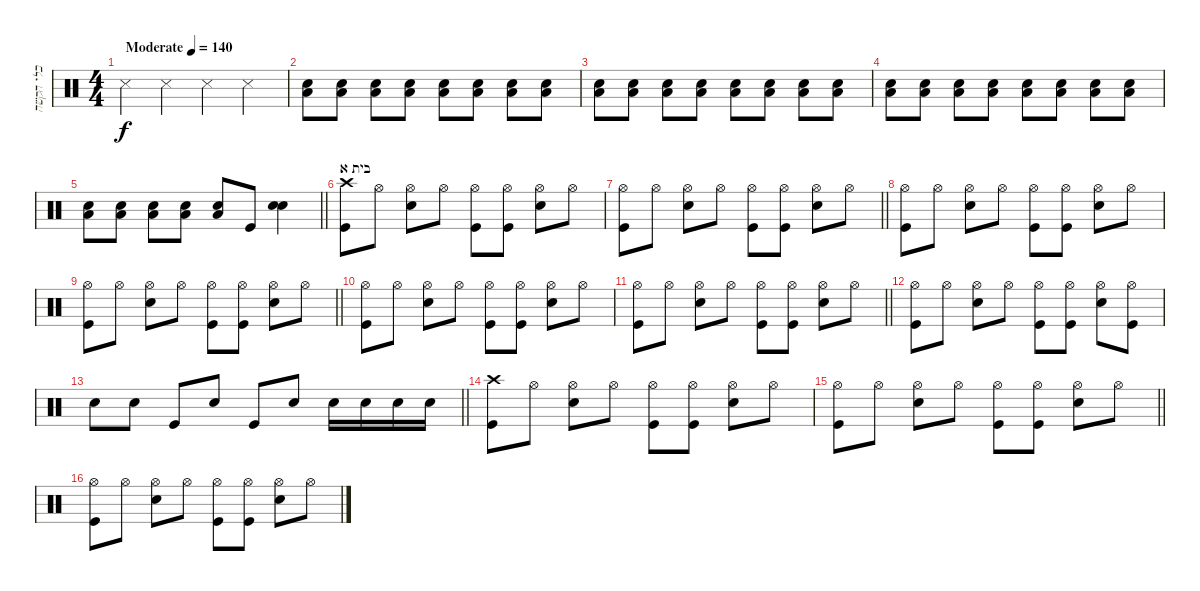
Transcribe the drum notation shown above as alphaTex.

\track ("כלי הקשה" "כלי הקשה") {instrument percussion}
\staff {score}
\articulation defaults
\ts (4 4)
\tempo (140 "Moderate")
\clef neutral
\ks c "Snare (side stick) 3".4{dy f} "Snare (side stick) 3".4 "Snare (side stick) 3".4 "Snare (side stick) 3".4
|
("Low Floor Tom (hit)" "Snare (hit) 2").8{volume 13} ("Low Floor Tom (hit)" "Snare (hit) 2").8 ("Low Floor Tom (hit)" "Snare (hit) 2").8 ("Low Floor Tom (hit)" "Snare (hit) 2").8 ("Low Floor Tom (hit)" "Snare (hit) 2").8 ("Low Floor Tom (hit)" "Snare (hit) 2").8 ("Low Floor Tom (hit)" "Snare (hit) 2").8 ("Low Floor Tom (hit)" "Snare (hit) 2").8 |
("Low Floor Tom (hit)" "Snare (hit) 2").8 ("Low Floor Tom (hit)" "Snare (hit) 2").8 ("Low Floor Tom (hit)" "Snare (hit) 2").8 ("Low Floor Tom (hit)" "Snare (hit) 2").8 ("Low Floor Tom (hit)" "Snare (hit) 2").8 ("Low Floor Tom (hit)" "Snare (hit) 2").8 ("Low Floor Tom (hit)" "Snare (hit) 2").8 ("Low Floor Tom (hit)" "Snare (hit) 2").8 |
("Low Floor Tom (hit)" "Snare (hit) 2").8 ("Low Floor Tom (hit)" "Snare (hit) 2").8 ("Low Floor Tom (hit)" "Snare (hit) 2").8 ("Low Floor Tom (hit)" "Snare (hit) 2").8 ("Low Floor Tom (hit)" "Snare (hit) 2").8 ("Low Floor Tom (hit)" "Snare (hit) 2").8 ("Low Floor Tom (hit)" "Snare (hit) 2").8 ("Low Floor Tom (hit)" "Snare (hit) 2").8 |
\barLineRight lightlight
("Low Floor Tom (hit)" "Snare (hit) 2").8 ("Low Floor Tom (hit)" "Snare (hit) 2").8 ("Low Floor Tom (hit)" "Snare (hit) 2").8 ("Low Floor Tom (hit)" "Snare (hit) 2").8 ("Low Floor Tom (hit)" "Snare (hit) 2").8 "Kick (hit)".8 ("Snare (hit) 2" "Snare (hit) 2").4 |
\section ("" "בית א")
("Kick (hit)" "Crash high (hit)").8 "Hi-Hat (open)".8 ("Snare (hit) 2" "Hi-Hat (open)").8 "Hi-Hat (open)".8 ("Kick (hit)" "Hi-Hat (open)").8 ("Kick (hit)" "Hi-Hat (open)").8 ("Snare (hit) 2" "Hi-Hat (open)").8 "Hi-Hat (open)".8 |
\barLineRight lightlight
("Kick (hit)" "Hi-Hat (open)").8 "Hi-Hat (open)".8 ("Snare (hit) 2" "Hi-Hat (open)").8 "Hi-Hat (open)".8 ("Kick (hit)" "Hi-Hat (open)").8 ("Kick (hit)" "Hi-Hat (open)").8 ("Snare (hit) 2" "Hi-Hat (open)").8 "Hi-Hat (open)".8 |
("Kick (hit)" "Hi-Hat (open)").8 "Hi-Hat (open)".8 ("Snare (hit) 2" "Hi-Hat (open)").8 "Hi-Hat (open)".8 ("Kick (hit)" "Hi-Hat (open)").8 ("Kick (hit)" "Hi-Hat (open)").8 ("Snare (hit) 2" "Hi-Hat (open)").8 "Hi-Hat (open)".8 |
\barLineRight lightlight
("Kick (hit)" "Hi-Hat (open)").8 "Hi-Hat (open)".8 ("Snare (hit) 2" "Hi-Hat (open)").8 "Hi-Hat (open)".8 ("Kick (hit)" "Hi-Hat (open)").8 ("Kick (hit)" "Hi-Hat (open)").8 ("Snare (hit) 2" "Hi-Hat (open)").8 "Hi-Hat (open)".8 |
("Kick (hit)" "Hi-Hat (open)").8 "Hi-Hat (open)".8 ("Snare (hit) 2" "Hi-Hat (open)").8 "Hi-Hat (open)".8 ("Kick (hit)" "Hi-Hat (open)").8 ("Kick (hit)" "Hi-Hat (open)").8 ("Snare (hit) 2" "Hi-Hat (open)").8 "Hi-Hat (open)".8 |
\barLineRight lightlight
("Kick (hit)" "Hi-Hat (open)").8 "Hi-Hat (open)".8 ("Snare (hit) 2" "Hi-Hat (open)").8 "Hi-Hat (open)".8 ("Kick (hit)" "Hi-Hat (open)").8 ("Kick (hit)" "Hi-Hat (open)").8 ("Snare (hit) 2" "Hi-Hat (open)").8 "Hi-Hat (open)".8 |
("Kick (hit)" "Hi-Hat (open)").8 "Hi-Hat (open)".8 ("Snare (hit) 2" "Hi-Hat (open)").8 "Hi-Hat (open)".8 ("Kick (hit)" "Hi-Hat (open)").8 ("Kick (hit)" "Hi-Hat (open)").8 ("Snare (hit) 2" "Hi-Hat (open)").8 ("Kick (hit)" "Hi-Hat (open)").8 |
\barLineRight lightlight "Snare (hit) 2".8 "Snare (hit) 2".8 "Kick (hit)".8 "Snare (hit) 2".8 "Kick (hit)".8 "Snare (hit) 2".8 "Snare (hit) 2".16 "Snare (hit) 2".16 "Snare (hit) 2".16 "Snare (hit) 2".16
|
("Kick (hit)" "Crash high (hit)").8 "Hi-Hat (open)".8 ("Snare (hit) 2" "Hi-Hat (open)").8 "Hi-Hat (open)".8 ("Kick (hit)" "Hi-Hat (open)").8 ("Kick (hit)" "Hi-Hat (open)").8 ("Snare (hit) 2" "Hi-Hat (open)").8 "Hi-Hat (open)".8 |
\barLineRight lightlight
("Kick (hit)" "Hi-Hat (open)").8 "Hi-Hat (open)".8 ("Snare (hit) 2" "Hi-Hat (open)").8 "Hi-Hat (open)".8 ("Kick (hit)" "Hi-Hat (open)").8 ("Kick (hit)" "Hi-Hat (open)").8 ("Snare (hit) 2" "Hi-Hat (open)").8 "Hi-Hat (open)".8 |
("Kick (hit)" "Hi-Hat (open)").8 "Hi-Hat (open)".8 ("Snare (hit) 2" "Hi-Hat (open)").8 "Hi-Hat (open)".8 ("Kick (hit)" "Hi-Hat (open)").8 ("Kick (hit)" "Hi-Hat (open)").8 ("Snare (hit) 2" "Hi-Hat (open)").8 "Hi-Hat (open)".8
